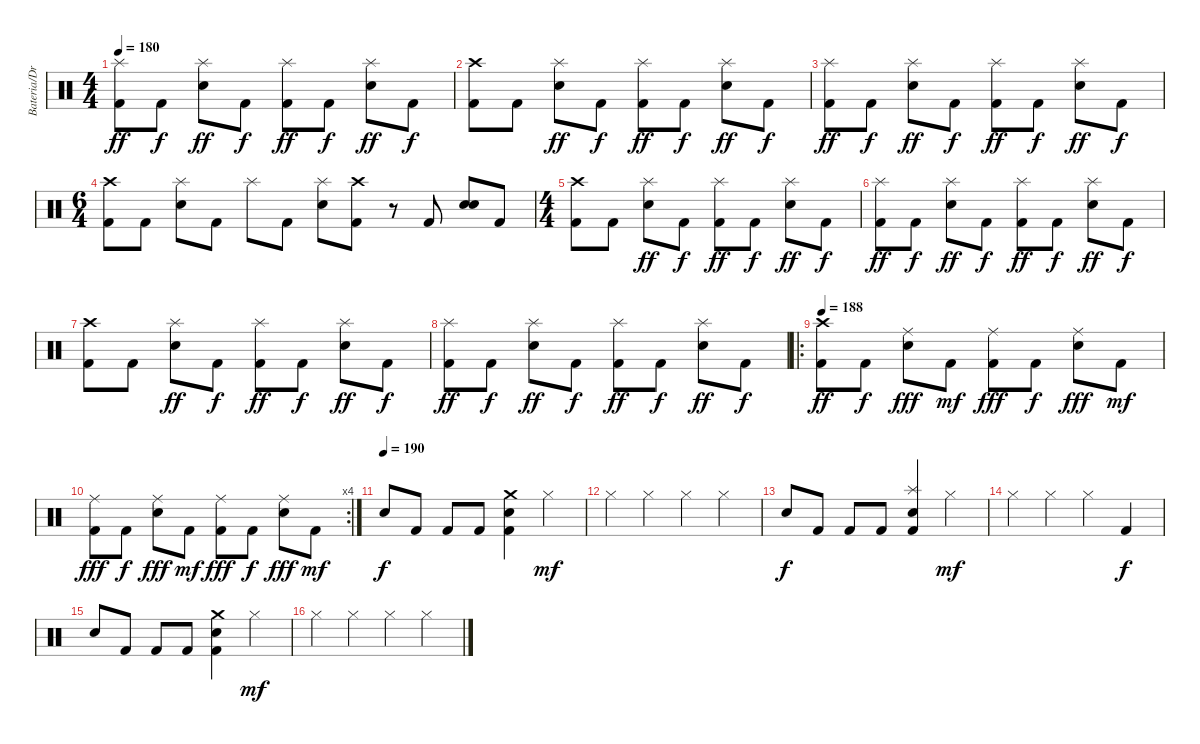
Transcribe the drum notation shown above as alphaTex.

\track ("Bateria/Drums" "Bateria/Dr") {instrument percussion}
\staff {score}
\articulation defaults
\ts (4 4)
\tempo 180
\clef neutral
\ks c
("Kick (hit) 2" "Splash (hit)").8{dy ff} "Kick (hit) 2".8{dy f} ("Electric Snare (hit)" "Splash (hit)").8{dy ff} "Kick (hit) 2".8{dy f} ("Kick (hit) 2" "Splash (hit)").8{dy ff} "Kick (hit) 2".8{dy f} ("Electric Snare (hit)" "Splash (hit)").8{dy ff} "Kick (hit) 2".8{dy f} |
("Kick (hit) 2" "Crash high (hit)").8 "Kick (hit) 2".8 ("Electric Snare (hit)" "Splash (hit)").8{dy ff} "Kick (hit) 2".8{dy f} ("Kick (hit) 2" "Splash (hit)").8{dy ff} "Kick (hit) 2".8{dy f} ("Electric Snare (hit)" "Splash (hit)").8{dy ff} "Kick (hit) 2".8{dy f} |
("Kick (hit) 2" "Splash (hit)").8{dy ff} "Kick (hit) 2".8{dy f} ("Electric Snare (hit)" "Splash (hit)").8{dy ff} "Kick (hit) 2".8{dy f} ("Kick (hit) 2" "Splash (hit)").8{dy ff} "Kick (hit) 2".8{dy f} ("Electric Snare (hit)" "Splash (hit)").8{dy ff} "Kick (hit) 2".8{dy f} |
\ts (6 4)
("Kick (hit) 2" "Crash high (hit)").8 "Kick (hit) 2".8 ("Electric Snare (hit)" "Splash (hit)").8 "Kick (hit) 2".8 "Splash (hit)".8 "Kick (hit) 2".8 ("Electric Snare (hit)" "Splash (hit)").8 ("Kick (hit) 2" "Crash high (hit)").8 r.8 "Kick (hit) 2".8 ("Electric Snare (hit)" "Electric Snare (hit)").8{bd 480} "Kick (hit) 2".8 |
\ts (4 4)
("Kick (hit) 2" "Crash high (hit)").8 "Kick (hit) 2".8 ("Electric Snare (hit)" "Splash (hit)").8{dy ff} "Kick (hit) 2".8{dy f} ("Kick (hit) 2" "Splash (hit)").8{dy ff} "Kick (hit) 2".8{dy f} ("Electric Snare (hit)" "Splash (hit)").8{dy ff} "Kick (hit) 2".8{dy f} |
("Kick (hit) 2" "Splash (hit)").8{dy ff} "Kick (hit) 2".8{dy f} ("Electric Snare (hit)" "Splash (hit)").8{dy ff} "Kick (hit) 2".8{dy f} ("Kick (hit) 2" "Splash (hit)").8{dy ff} "Kick (hit) 2".8{dy f} ("Electric Snare (hit)" "Splash (hit)").8{dy ff} "Kick (hit) 2".8{dy f} |
("Kick (hit) 2" "Crash high (hit)").8 "Kick (hit) 2".8 ("Electric Snare (hit)" "Splash (hit)").8{dy ff} "Kick (hit) 2".8{dy f} ("Kick (hit) 2" "Splash (hit)").8{dy ff} "Kick (hit) 2".8{dy f} ("Electric Snare (hit)" "Splash (hit)").8{dy ff} "Kick (hit) 2".8{dy f} |
("Kick (hit) 2" "Splash (hit)").8{dy ff} "Kick (hit) 2".8{dy f} ("Electric Snare (hit)" "Splash (hit)").8{dy ff} "Kick (hit) 2".8{dy f} ("Kick (hit) 2" "Splash (hit)").8{dy ff} "Kick (hit) 2".8{dy f} ("Electric Snare (hit)" "Splash (hit)").8{dy ff} "Kick (hit) 2".8{dy f} |
\ro
\tempo 188
("Kick (hit) 2" "Crash high (hit)").8{dy ff} "Kick (hit) 2".8{dy f} ("Electric Snare (hit)" "Ride (middle)").8{dy fff} "Kick (hit) 2".8{dy mf} ("Kick (hit) 2" "Ride (middle)").8{dy fff} "Kick (hit) 2".8{dy f} ("Electric Snare (hit)" "Ride (middle)").8{dy fff} "Kick (hit) 2".8{dy mf} |
\rc 4
("Kick (hit) 2" "Ride (middle)").8{dy fff} "Kick (hit) 2".8{dy f} ("Electric Snare (hit)" "Ride (middle)").8{dy fff} "Kick (hit) 2".8{dy mf} ("Kick (hit) 2" "Ride (middle)").8{dy fff} "Kick (hit) 2".8{dy f} ("Electric Snare (hit)" "Ride (middle)").8{dy fff} "Kick (hit) 2".8{dy mf} |
\tempo (190)
"Electric Snare (hit)".8{dy f} "Kick (hit) 2".8 "Kick (hit) 2".8 "Kick (hit) 2".8 ("Kick (hit) 2" "Electric Snare (hit)" "Crash medium (hit)").4 "Hi-Hat (closed)".4{dy mf} |
"Hi-Hat (closed)".4 "Hi-Hat (closed)".4 "Hi-Hat (closed)".4 "Hi-Hat (closed)".4 |
"Electric Snare (hit)".8{dy f} "Kick (hit) 2".8 "Kick (hit) 2".8 "Kick (hit) 2".8 ("Kick (hit) 2" "Electric Snare (hit)" "Splash (hit)").4{bd 120} "Hi-Hat (closed)".4{dy mf} |
"Hi-Hat (closed)".4 "Hi-Hat (closed)".4 "Hi-Hat (closed)".4 "Kick (hit) 2".4{dy f} |
"Electric Snare (hit)".8 "Kick (hit) 2".8 "Kick (hit) 2".8 "Kick (hit) 2".8 ("Kick (hit) 2" "Electric Snare (hit)" "Crash medium (hit)").4 "Hi-Hat (closed)".4{dy mf} |
"Hi-Hat (closed)".4 "Hi-Hat (closed)".4 "Hi-Hat (closed)".4 "Hi-Hat (closed)".4
